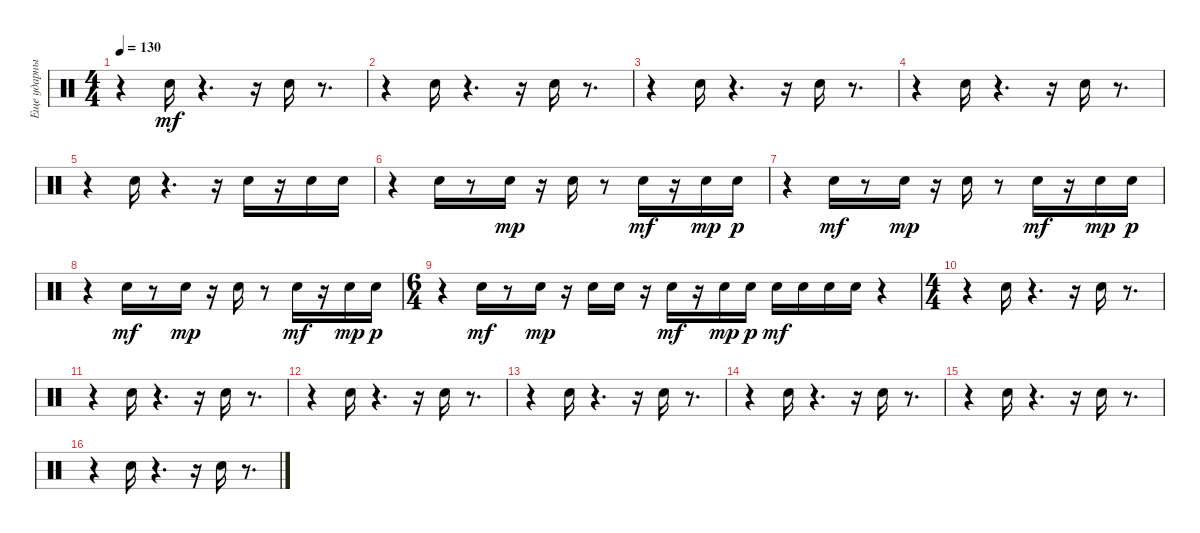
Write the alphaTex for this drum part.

\track ("Еще ударные" "Еще ударны") {instrument percussion}
\staff {score}
\articulation defaults
\ts (4 4)
\tempo 130
\clef neutral
\ks c
r.4{dy mf} "Electric Snare (hit)".16 r.4{d} r.16 "Electric Snare (hit)".16 r.8{d} |
r.4 "Electric Snare (hit)".16 r.4{d} r.16 "Electric Snare (hit)".16 r.8{d} |
r.4 "Electric Snare (hit)".16 r.4{d} r.16 "Electric Snare (hit)".16 r.8{d} |
r.4 "Electric Snare (hit)".16 r.4{d} r.16 "Electric Snare (hit)".16 r.8{d} |
r.4 "Electric Snare (hit)".16 r.4{d} r.16 "Electric Snare (hit)".16 r.16 "Electric Snare (hit)".16 "Electric Snare (hit)".16 |
r.4 "Electric Snare (hit)".16 r.8 "Electric Snare (hit)".16{dy mp} r.16 "Electric Snare (hit)".16 r.8 "Electric Snare (hit)".16{dy mf} r.16 "Electric Snare (hit)".16{dy mp} "Electric Snare (hit)".16{dy p} |
r.4 "Electric Snare (hit)".16{dy mf} r.8 "Electric Snare (hit)".16{dy mp} r.16 "Electric Snare (hit)".16 r.8 "Electric Snare (hit)".16{dy mf} r.16 "Electric Snare (hit)".16{dy mp} "Electric Snare (hit)".16{dy p} |
r.4 "Electric Snare (hit)".16{dy mf} r.8 "Electric Snare (hit)".16{dy mp} r.16 "Electric Snare (hit)".16 r.8 "Electric Snare (hit)".16{dy mf} r.16 "Electric Snare (hit)".16{dy mp} "Electric Snare (hit)".16{dy p} |
\ts (6 4)
r.4 "Electric Snare (hit)".16{dy mf} r.8 "Electric Snare (hit)".16{dy mp} r.16 "Electric Snare (hit)".16 "Electric Snare (hit)".16 r.16 "Electric Snare (hit)".16{dy mf} r.16 "Electric Snare (hit)".16{dy mp} "Electric Snare (hit)".16{dy p} "Electric Snare (hit)".16{dy mf} "Electric Snare (hit)".16 "Electric Snare (hit)".16 "Electric Snare (hit)".16 r.4 |
\ts (4 4)
r.4 "Electric Snare (hit)".16 r.4{d} r.16 "Electric Snare (hit)".16 r.8{d} |
r.4 "Electric Snare (hit)".16 r.4{d} r.16 "Electric Snare (hit)".16 r.8{d} |
r.4 "Electric Snare (hit)".16 r.4{d} r.16 "Electric Snare (hit)".16 r.8{d} |
r.4 "Electric Snare (hit)".16 r.4{d} r.16 "Electric Snare (hit)".16 r.8{d} |
r.4 "Electric Snare (hit)".16 r.4{d} r.16 "Electric Snare (hit)".16 r.8{d} |
r.4 "Electric Snare (hit)".16 r.4{d} r.16 "Electric Snare (hit)".16 r.8{d} |
r.4 "Electric Snare (hit)".16 r.4{d} r.16 "Electric Snare (hit)".16 r.8{d}
